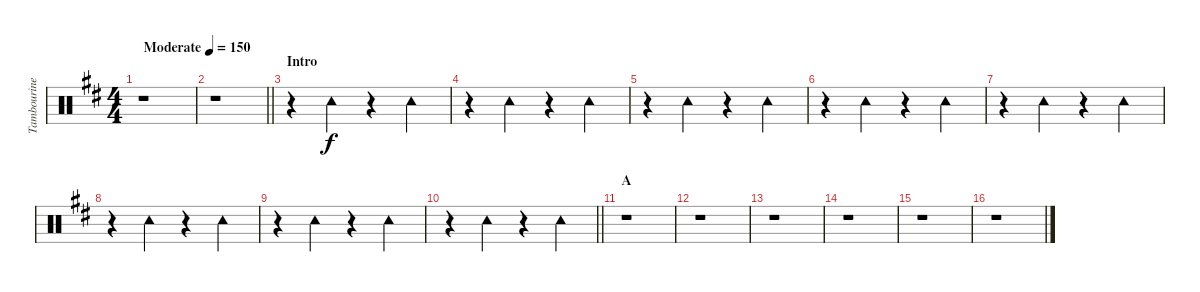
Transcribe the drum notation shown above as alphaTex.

\track ("Tambourine" "Tambourine") {instrument percussion}
\staff {score}
\articulation defaults
\ts (4 4)
\tempo (150 "Moderate")
\clef neutral
\ks d
r.1{dy f} |
\barLineRight lightlight
r.1 |
\section ("" "Intro")
r.4 "Tambourine (hit)".4 r.4 "Tambourine (hit)".4 |
r.4 "Tambourine (hit)".4 r.4 "Tambourine (hit)".4 |
r.4 "Tambourine (hit)".4 r.4 "Tambourine (hit)".4 |
r.4 "Tambourine (hit)".4 r.4 "Tambourine (hit)".4 |
r.4 "Tambourine (hit)".4 r.4 "Tambourine (hit)".4 |
r.4 "Tambourine (hit)".4 r.4 "Tambourine (hit)".4 |
r.4 "Tambourine (hit)".4 r.4 "Tambourine (hit)".4 |
\barLineRight lightlight
r.4 "Tambourine (hit)".4 r.4 "Tambourine (hit)".4 |
\section ("" "A")
r.1 |
r.1 |
r.1 |
r.1 |
r.1 |
r.1
